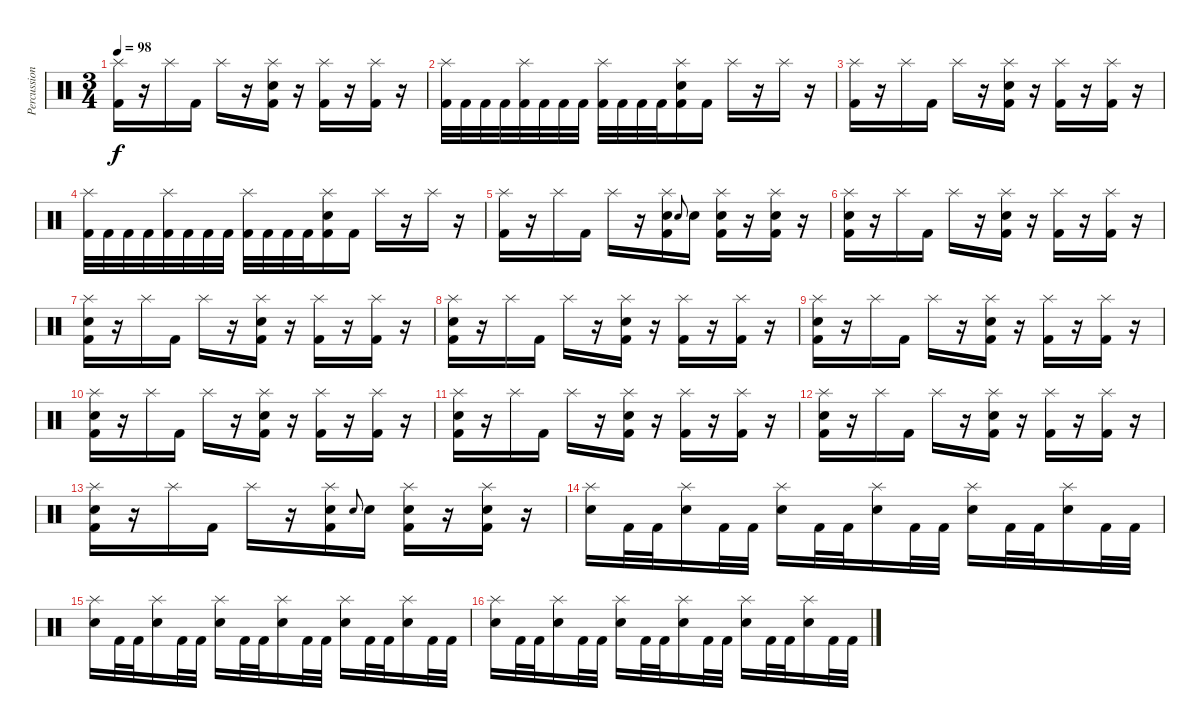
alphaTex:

\track ("Percussion" "Percussion") {instrument percussion}
\staff {score}
\articulation defaults
\ts (3 4)
\tempo 98
\clef neutral
\ks c
("Splash (hit)" "Kick (hit) 2").16{dy f} r.16 "Splash (hit)".16 "Kick (hit) 2".16 "Splash (hit)".16 r.16 ("Splash (hit)" "Snare (hit) 2" "Kick (hit) 2").16 r.16 ("Splash (hit)" "Kick (hit) 2").16 r.16 ("Splash (hit)" "Kick (hit) 2").16 r.16 |
("Splash (hit)" "Kick (hit) 2").32 "Kick (hit) 2".32 "Kick (hit) 2".32 "Kick (hit) 2".32 ("Splash (hit)" "Kick (hit) 2").32 "Kick (hit) 2".32 "Kick (hit) 2".32 "Kick (hit) 2".32 ("Splash (hit)" "Kick (hit) 2").32 "Kick (hit) 2".32 "Kick (hit) 2".32 "Kick (hit) 2".32 ("Splash (hit)" "Snare (hit) 2" "Kick (hit) 2").16 "Kick (hit) 2".16 "Splash (hit)".16 r.16 "Splash (hit)".16 r.16 |
("Splash (hit)" "Kick (hit) 2").16 r.16 "Splash (hit)".16 "Kick (hit) 2".16 "Splash (hit)".16 r.16 ("Splash (hit)" "Snare (hit) 2" "Kick (hit) 2").16 r.16 ("Splash (hit)" "Kick (hit) 2").16 r.16 ("Splash (hit)" "Kick (hit) 2").16 r.16 |
("Splash (hit)" "Kick (hit) 2").32 "Kick (hit) 2".32 "Kick (hit) 2".32 "Kick (hit) 2".32 ("Splash (hit)" "Kick (hit) 2").32 "Kick (hit) 2".32 "Kick (hit) 2".32 "Kick (hit) 2".32 ("Splash (hit)" "Kick (hit) 2").32 "Kick (hit) 2".32 "Kick (hit) 2".32 "Kick (hit) 2".32 ("Splash (hit)" "Snare (hit) 2" "Kick (hit) 2").16 "Kick (hit) 2".16 "Splash (hit)".16 r.16 "Splash (hit)".16 r.16 |
("Splash (hit)" "Kick (hit) 2").16 r.16 "Splash (hit)".16 "Kick (hit) 2".16 "Splash (hit)".16 r.16 ("Splash (hit)" "Snare (hit) 2" "Kick (hit) 2").16 "Snare (hit) 2".8{gr onbeat} "Snare (hit) 2".16 ("Splash (hit)" "Snare (hit) 2" "Kick (hit) 2").16 r.16 ("Splash (hit)" "Snare (hit) 2" "Kick (hit) 2").16 r.16 |
("Splash (hit)" "Snare (hit) 2" "Kick (hit) 2").16 r.16 "Splash (hit)".16 "Kick (hit) 2".16 "Splash (hit)".16 r.16 ("Splash (hit)" "Snare (hit) 2" "Kick (hit) 2").16 r.16 ("Splash (hit)" "Kick (hit) 2").16 r.16 ("Splash (hit)" "Kick (hit) 2").16 r.16 |
("Splash (hit)" "Snare (hit) 2" "Kick (hit) 2").16 r.16 "Splash (hit)".16 "Kick (hit) 2".16 "Splash (hit)".16 r.16 ("Splash (hit)" "Snare (hit) 2" "Kick (hit) 2").16 r.16 ("Splash (hit)" "Kick (hit) 2").16 r.16 ("Splash (hit)" "Kick (hit) 2").16 r.16 |
("Splash (hit)" "Snare (hit) 2" "Kick (hit) 2").16 r.16 "Splash (hit)".16 "Kick (hit) 2".16 "Splash (hit)".16 r.16 ("Splash (hit)" "Snare (hit) 2" "Kick (hit) 2").16 r.16 ("Splash (hit)" "Kick (hit) 2").16 r.16 ("Splash (hit)" "Kick (hit) 2").16 r.16 |
("Splash (hit)" "Snare (hit) 2" "Kick (hit) 2").16 r.16 "Splash (hit)".16 "Kick (hit) 2".16 "Splash (hit)".16 r.16 ("Splash (hit)" "Snare (hit) 2" "Kick (hit) 2").16 r.16 ("Splash (hit)" "Kick (hit) 2").16 r.16 ("Splash (hit)" "Kick (hit) 2").16 r.16 |
("Splash (hit)" "Snare (hit) 2" "Kick (hit) 2").16 r.16 "Splash (hit)".16 "Kick (hit) 2".16 "Splash (hit)".16 r.16 ("Splash (hit)" "Snare (hit) 2" "Kick (hit) 2").16 r.16 ("Splash (hit)" "Kick (hit) 2").16 r.16 ("Splash (hit)" "Kick (hit) 2").16 r.16 |
("Splash (hit)" "Snare (hit) 2" "Kick (hit) 2").16 r.16 "Splash (hit)".16 "Kick (hit) 2".16 "Splash (hit)".16 r.16 ("Splash (hit)" "Snare (hit) 2" "Kick (hit) 2").16 r.16 ("Splash (hit)" "Kick (hit) 2").16 r.16 ("Splash (hit)" "Kick (hit) 2").16 r.16 |
("Splash (hit)" "Snare (hit) 2" "Kick (hit) 2").16 r.16 "Splash (hit)".16 "Kick (hit) 2".16 "Splash (hit)".16 r.16 ("Splash (hit)" "Snare (hit) 2" "Kick (hit) 2").16 r.16 ("Splash (hit)" "Kick (hit) 2").16 r.16 ("Splash (hit)" "Kick (hit) 2").16 r.16 |
("Splash (hit)" "Snare (hit) 2" "Kick (hit) 2").16 r.16 "Splash (hit)".16 "Kick (hit) 2".16 "Splash (hit)".16 r.16 ("Splash (hit)" "Snare (hit) 2" "Kick (hit) 2").16 "Snare (hit) 2".8{gr onbeat} "Snare (hit) 2".16 ("Splash (hit)" "Snare (hit) 2" "Kick (hit) 2").16 r.16 ("Splash (hit)" "Snare (hit) 2" "Kick (hit) 2").16 r.16 |
("Splash (hit)" "Snare (hit) 2").16 "Kick (hit) 2".32 "Kick (hit) 2".32 ("Splash (hit)" "Snare (hit) 2").16 "Kick (hit) 2".32 "Kick (hit) 2".32 ("Splash (hit)" "Snare (hit) 2").16 "Kick (hit) 2".32 "Kick (hit) 2".32 ("Splash (hit)" "Snare (hit) 2").16 "Kick (hit) 2".32 "Kick (hit) 2".32 ("Splash (hit)" "Snare (hit) 2").16 "Kick (hit) 2".32 "Kick (hit) 2".32 ("Splash (hit)" "Snare (hit) 2").16 "Kick (hit) 2".32 "Kick (hit) 2".32 |
("Splash (hit)" "Snare (hit) 2").16 "Kick (hit) 2".32 "Kick (hit) 2".32 ("Splash (hit)" "Snare (hit) 2").16 "Kick (hit) 2".32 "Kick (hit) 2".32 ("Splash (hit)" "Snare (hit) 2").16 "Kick (hit) 2".32 "Kick (hit) 2".32 ("Splash (hit)" "Snare (hit) 2").16 "Kick (hit) 2".32 "Kick (hit) 2".32 ("Splash (hit)" "Snare (hit) 2").16 "Kick (hit) 2".32 "Kick (hit) 2".32 ("Splash (hit)" "Snare (hit) 2").16 "Kick (hit) 2".32 "Kick (hit) 2".32 |
("Splash (hit)" "Snare (hit) 2").16 "Kick (hit) 2".32 "Kick (hit) 2".32 ("Splash (hit)" "Snare (hit) 2").16 "Kick (hit) 2".32 "Kick (hit) 2".32 ("Splash (hit)" "Snare (hit) 2").16 "Kick (hit) 2".32 "Kick (hit) 2".32 ("Splash (hit)" "Snare (hit) 2").16 "Kick (hit) 2".32 "Kick (hit) 2".32 ("Splash (hit)" "Snare (hit) 2").16 "Kick (hit) 2".32 "Kick (hit) 2".32 ("Splash (hit)" "Snare (hit) 2").16 "Kick (hit) 2".32 "Kick (hit) 2".32
